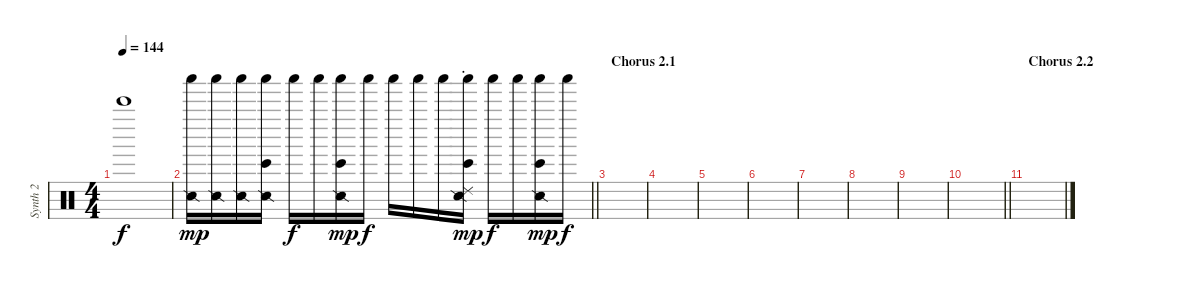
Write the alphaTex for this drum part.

\track ("Synth 2" "Synth 2") {instrument percussion}
\staff {score}
\articulation defaults
\ts (4 4)
\tempo 144
\clef neutral
\ks c "Bell Tree (hit)".1{dy f}
|
\barLineRight lightlight
("Snare (side stick) 2" "Shaker (hit)").16{dy mp} ("Snare (side stick) 2" "Shaker (hit)").16 ("Snare (side stick) 2" "Shaker (hit)").16 ("Bongo High (hit)" "Snare (side stick) 2" "Shaker (hit)").16 "Shaker (hit)".16{dy f} "Shaker (hit)".16 ("Bongo High (hit)" "Snare (side stick) 2" "Shaker (hit)").16{dy mp} "Shaker (hit)".16{dy f} "Shaker (hit)".16 "Shaker (hit)".16 "Shaker (hit)".16 ("Ride (choke) 2" "Bongo High (hit)" "Snare (side stick) 2" "Shaker (hit)").16{dy mp} "Shaker (hit)".16{dy f} "Shaker (hit)".16 ("Bongo High (hit)" "Snare (side stick) 2" "Shaker (hit)").16{dy mp} "Shaker (hit)".16{dy f} |
\section ("" "Chorus 2.1")
|
|
|
|
|
|
|
\barLineRight lightlight
|
\section ("" "Chorus 2.2")
